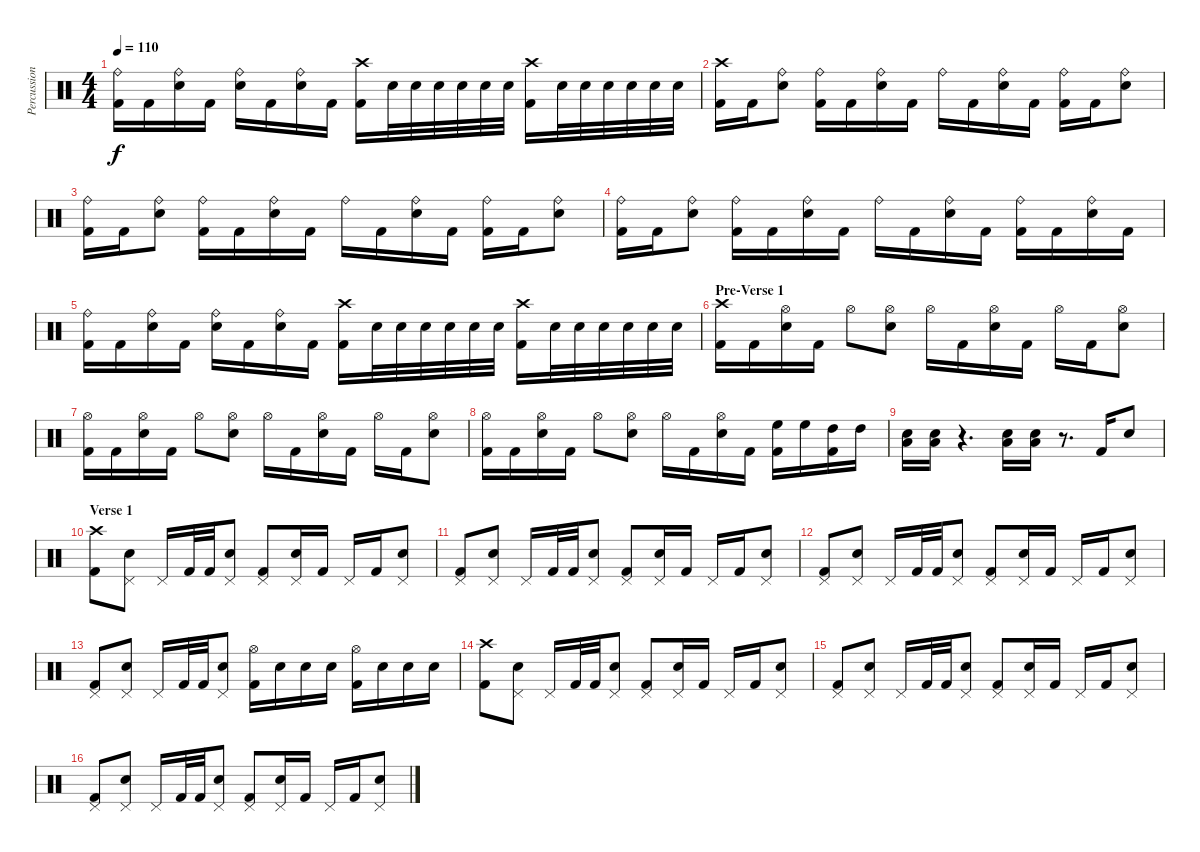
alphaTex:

\track ("Percussion" "Percussion") {instrument percussion}
\staff {score}
\articulation defaults
\ts (4 4)
\tempo 110
\clef neutral
\ks c
("Kick (hit) 2" "Ride (bell)").16{dy f} "Kick (hit) 2".16 ("Electric Snare (hit)" "Ride (bell)").16 "Kick (hit) 2".16 ("Electric Snare (hit)" "Ride (bell)").16 "Kick (hit) 2".16 ("Electric Snare (hit)" "Ride (bell)").16 "Kick (hit) 2".16 ("Kick (hit) 2" "Crash high (hit)").16 "Electric Snare (hit)".32 "Electric Snare (hit)".32 "Electric Snare (hit)".32 "Electric Snare (hit)".32 "Electric Snare (hit)".32 "Electric Snare (hit)".32 ("Kick (hit) 2" "Crash high (hit)").16 "Electric Snare (hit)".32 "Electric Snare (hit)".32 "Electric Snare (hit)".32 "Electric Snare (hit)".32 "Electric Snare (hit)".32 "Electric Snare (hit)".32 |
("Kick (hit) 2" "Crash high (hit)").16 "Kick (hit) 2".16 ("Electric Snare (hit)" "Ride (bell)").8 ("Kick (hit) 2" "Ride (bell)").16 "Kick (hit) 2".16 ("Electric Snare (hit)" "Ride (bell)").16 "Kick (hit) 2".16 "Ride (bell)".16 "Kick (hit) 2".16 ("Electric Snare (hit)" "Ride (bell)").16 "Kick (hit) 2".16 ("Kick (hit) 2" "Ride (bell)").16 "Kick (hit) 2".16 ("Electric Snare (hit)" "Ride (bell)").8 |
("Kick (hit) 2" "Ride (bell)").16 "Kick (hit) 2".16 ("Electric Snare (hit)" "Ride (bell)").8 ("Kick (hit) 2" "Ride (bell)").16 "Kick (hit) 2".16 ("Electric Snare (hit)" "Ride (bell)").16 "Kick (hit) 2".16 "Ride (bell)".16 "Kick (hit) 2".16 ("Electric Snare (hit)" "Ride (bell)").16 "Kick (hit) 2".16 ("Kick (hit) 2" "Ride (bell)").16 "Kick (hit) 2".16 ("Electric Snare (hit)" "Ride (bell)").8 |
("Kick (hit) 2" "Ride (bell)").16 "Kick (hit) 2".16 ("Electric Snare (hit)" "Ride (bell)").8 ("Kick (hit) 2" "Ride (bell)").16 "Kick (hit) 2".16 ("Electric Snare (hit)" "Ride (bell)").16 "Kick (hit) 2".16 "Ride (bell)".16 "Kick (hit) 2".16 ("Electric Snare (hit)" "Ride (bell)").16 "Kick (hit) 2".16 ("Kick (hit) 2" "Ride (bell)").16 "Kick (hit) 2".16 ("Electric Snare (hit)" "Ride (bell)").16 "Kick (hit) 2".16 |
("Kick (hit) 2" "Ride (bell)").16 "Kick (hit) 2".16 ("Electric Snare (hit)" "Ride (bell)").16 "Kick (hit) 2".16 ("Electric Snare (hit)" "Ride (bell)").16 "Kick (hit) 2".16 ("Electric Snare (hit)" "Ride (bell)").16 "Kick (hit) 2".16 ("Kick (hit) 2" "Crash high (hit)").16 "Electric Snare (hit)".32 "Electric Snare (hit)".32 "Electric Snare (hit)".32 "Electric Snare (hit)".32 "Electric Snare (hit)".32 "Electric Snare (hit)".32 ("Kick (hit) 2" "Crash high (hit)").16 "Electric Snare (hit)".32 "Electric Snare (hit)".32 "Electric Snare (hit)".32 "Electric Snare (hit)".32 "Electric Snare (hit)".32 "Electric Snare (hit)".32 |
\section ("" "Pre-Verse 1")
("Kick (hit) 2" "Crash high (hit)").16 "Kick (hit) 2".16 ("Electric Snare (hit)" "Hi-Hat (open)").16 "Kick (hit) 2".16 "Hi-Hat (open)".8 ("Electric Snare (hit)" "Hi-Hat (open)").8 "Hi-Hat (open)".16 "Kick (hit) 2".16 ("Electric Snare (hit)" "Hi-Hat (open)").16 "Kick (hit) 2".16 "Hi-Hat (open)".16 "Kick (hit) 2".16 ("Electric Snare (hit)" "Hi-Hat (open)").8 |
("Kick (hit) 2" "Hi-Hat (open)").16 "Kick (hit) 2".16 ("Electric Snare (hit)" "Hi-Hat (open)").16 "Kick (hit) 2".16 "Hi-Hat (open)".8 ("Electric Snare (hit)" "Hi-Hat (open)").8 "Hi-Hat (open)".16 "Kick (hit) 2".16 ("Electric Snare (hit)" "Hi-Hat (open)").16 "Kick (hit) 2".16 "Hi-Hat (open)".16 "Kick (hit) 2".16 ("Electric Snare (hit)" "Hi-Hat (open)").8 |
("Kick (hit) 2" "Hi-Hat (open)").16 "Kick (hit) 2".16 ("Electric Snare (hit)" "Hi-Hat (open)").16 "Kick (hit) 2".16 "Hi-Hat (open)".8 ("Electric Snare (hit)" "Hi-Hat (open)").8 "Hi-Hat (open)".16 "Kick (hit) 2".16 ("Electric Snare (hit)" "Hi-Hat (open)").16 "Kick (hit) 2".16 ("High Floor Tom (hit)" "Kick (hit) 2").16 "High Floor Tom (hit)".16 ("High Tom (hit)" "Kick (hit) 2").16 "High Tom (hit)".16 |
("Electric Snare (hit)" "Low Tom (hit)").16 ("Electric Snare (hit)" "Low Tom (hit)").16 r.4{d} ("Electric Snare (hit)" "Low Tom (hit)").16 ("Electric Snare (hit)" "Low Tom (hit)").16 r.8{d} "Kick (hit) 2".16 "Electric Snare (hit)".8 |
\section ("" "Verse 1")
("Kick (hit) 2" "Crash high (hit)").8 ("Electric Snare (hit)" "Pedal Hi-Hat (hit)").8 "Pedal Hi-Hat (hit)".16 "Kick (hit) 2".32 "Kick (hit) 2".32 ("Electric Snare (hit)" "Pedal Hi-Hat (hit)").8 ("Kick (hit) 2" "Pedal Hi-Hat (hit)").8 ("Electric Snare (hit)" "Pedal Hi-Hat (hit)").16 "Kick (hit) 2".16 "Pedal Hi-Hat (hit)".16 "Kick (hit) 2".16 ("Electric Snare (hit)" "Pedal Hi-Hat (hit)").8 |
("Kick (hit) 2" "Pedal Hi-Hat (hit)").8 ("Electric Snare (hit)" "Pedal Hi-Hat (hit)").8 "Pedal Hi-Hat (hit)".16 "Kick (hit) 2".32 "Kick (hit) 2".32 ("Electric Snare (hit)" "Pedal Hi-Hat (hit)").8 ("Kick (hit) 2" "Pedal Hi-Hat (hit)").8 ("Electric Snare (hit)" "Pedal Hi-Hat (hit)").16 "Kick (hit) 2".16 "Pedal Hi-Hat (hit)".16 "Kick (hit) 2".16 ("Electric Snare (hit)" "Pedal Hi-Hat (hit)").8 |
("Kick (hit) 2" "Pedal Hi-Hat (hit)").8 ("Electric Snare (hit)" "Pedal Hi-Hat (hit)").8 "Pedal Hi-Hat (hit)".16 "Kick (hit) 2".32 "Kick (hit) 2".32 ("Electric Snare (hit)" "Pedal Hi-Hat (hit)").8 ("Kick (hit) 2" "Pedal Hi-Hat (hit)").8 ("Electric Snare (hit)" "Pedal Hi-Hat (hit)").16 "Kick (hit) 2".16 "Pedal Hi-Hat (hit)".16 "Kick (hit) 2".16 ("Electric Snare (hit)" "Pedal Hi-Hat (hit)").8 |
("Kick (hit) 2" "Pedal Hi-Hat (hit)").8 ("Electric Snare (hit)" "Pedal Hi-Hat (hit)").8 "Pedal Hi-Hat (hit)".16 "Kick (hit) 2".32 "Kick (hit) 2".32 ("Electric Snare (hit)" "Pedal Hi-Hat (hit)").8 ("Kick (hit) 2" "Hi-Hat (open)").16 "Electric Snare (hit)".16 "Electric Snare (hit)".16 "Electric Snare (hit)".16 ("Kick (hit) 2" "Hi-Hat (open)").16 "Electric Snare (hit)".16 "Electric Snare (hit)".16 "Electric Snare (hit)".16 |
("Kick (hit) 2" "Crash high (hit)").8 ("Electric Snare (hit)" "Pedal Hi-Hat (hit)").8 "Pedal Hi-Hat (hit)".16 "Kick (hit) 2".32 "Kick (hit) 2".32 ("Electric Snare (hit)" "Pedal Hi-Hat (hit)").8 ("Kick (hit) 2" "Pedal Hi-Hat (hit)").8 ("Electric Snare (hit)" "Pedal Hi-Hat (hit)").16 "Kick (hit) 2".16 "Pedal Hi-Hat (hit)".16 "Kick (hit) 2".16 ("Electric Snare (hit)" "Pedal Hi-Hat (hit)").8 |
("Kick (hit) 2" "Pedal Hi-Hat (hit)").8 ("Electric Snare (hit)" "Pedal Hi-Hat (hit)").8 "Pedal Hi-Hat (hit)".16 "Kick (hit) 2".32 "Kick (hit) 2".32 ("Electric Snare (hit)" "Pedal Hi-Hat (hit)").8 ("Kick (hit) 2" "Pedal Hi-Hat (hit)").8 ("Electric Snare (hit)" "Pedal Hi-Hat (hit)").16 "Kick (hit) 2".16 "Pedal Hi-Hat (hit)".16 "Kick (hit) 2".16 ("Electric Snare (hit)" "Pedal Hi-Hat (hit)").8 |
("Kick (hit) 2" "Pedal Hi-Hat (hit)").8 ("Electric Snare (hit)" "Pedal Hi-Hat (hit)").8 "Pedal Hi-Hat (hit)".16 "Kick (hit) 2".32 "Kick (hit) 2".32 ("Electric Snare (hit)" "Pedal Hi-Hat (hit)").8 ("Kick (hit) 2" "Pedal Hi-Hat (hit)").8 ("Electric Snare (hit)" "Pedal Hi-Hat (hit)").16 "Kick (hit) 2".16 "Pedal Hi-Hat (hit)".16 "Kick (hit) 2".16 ("Electric Snare (hit)" "Pedal Hi-Hat (hit)").8
